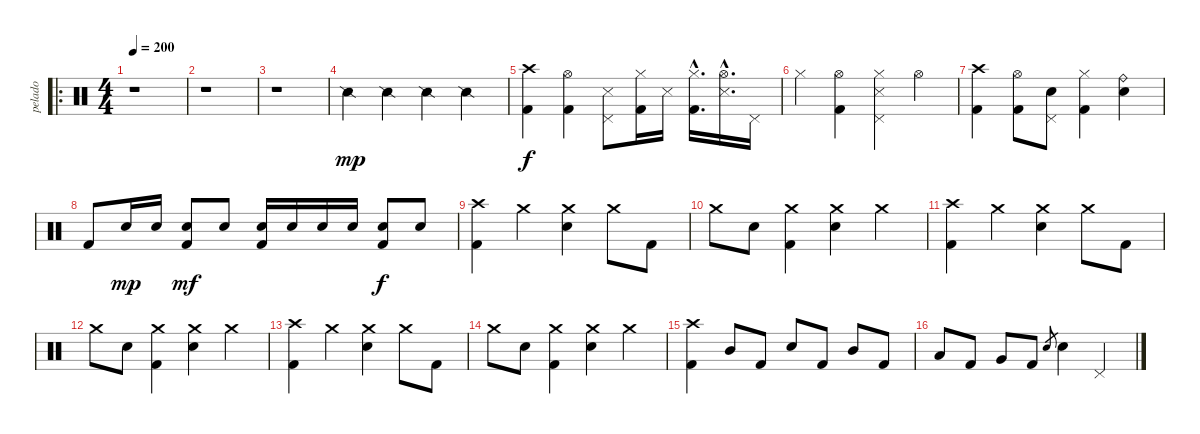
\track ("pelado" "pelado") {instrument percussion}
\staff {score}
\articulation defaults
\ro
\ts (4 4)
\tempo 200
\clef neutral
\ks c
r.1{dy mp} |
r.1 |
r.1 |
"Snare (side stick) 2".4 "Snare (side stick) 2".4 "Snare (side stick) 2".4 "Snare (side stick) 2".4 |
("Crash high (hit)" "Kick (hit) 2").4{dy f} ("Hi-Hat (open)" "Kick (hit) 2").4 ("Pedal Hi-Hat (hit)" "Snare (side stick) 3").8 ("Hi-Hat (closed)" "Kick (hit) 2").16 "Snare (side stick) 3".16 ("Hi-Hat (closed)"{hac} "Kick (hit) 2"{hac}).16{d} ("Hi-Hat (open)"{hac} "Snare (side stick) 3"{hac}).16{d} "Pedal Hi-Hat (hit)".16 |
"Hi-Hat (closed)".4 ("Hi-Hat (open)" "Kick (hit) 2").4 ("Hi-Hat (closed)" "Pedal Hi-Hat (hit)" "Snare (side stick) 3").4 "Hi-Hat (open)".4 |
("Crash high (hit)" "Kick (hit) 2").4 ("Hi-Hat (open)" "Kick (hit) 2").8 ("Pedal Hi-Hat (hit)" "Electric Snare (hit)").8 ("Hi-Hat (closed)" "Kick (hit) 2").4 ("Ride (bell)" "Electric Snare (hit)").4 |
"Kick (hit) 2".8 "Electric Snare (hit)".16{dy mp} "Electric Snare (hit)".16 ("Electric Snare (hit)" "Kick (hit) 2").8{dy mf} "Electric Snare (hit)".8 ("Electric Snare (hit)" "Kick (hit) 2").16 "Electric Snare (hit)".16 "Electric Snare (hit)".16 "Electric Snare (hit)".16 ("Electric Snare (hit)" "Kick (hit) 2").8{dy f} "Electric Snare (hit)".8 |
("Crash high (hit)" "Kick (hit) 2").4 "Crash medium (hit)".4 ("Crash medium (hit)" "Electric Snare (hit)").4 "Crash medium (hit)".8 "Kick (hit) 2".8 |
"Crash medium (hit)".8 "Electric Snare (hit)".8 ("Crash medium (hit)" "Kick (hit) 2").4 ("Crash medium (hit)" "Electric Snare (hit)").4 "Crash medium (hit)".4 |
("Crash high (hit)" "Kick (hit) 2").4 "Crash medium (hit)".4 ("Crash medium (hit)" "Electric Snare (hit)").4 "Crash medium (hit)".8 "Kick (hit) 2".8 |
"Crash medium (hit)".8 "Electric Snare (hit)".8 ("Crash medium (hit)" "Kick (hit) 2").4 ("Crash medium (hit)" "Electric Snare (hit)").4 "Crash medium (hit)".4 |
("Crash high (hit)" "Kick (hit) 2").4 "Crash medium (hit)".4 ("Crash medium (hit)" "Electric Snare (hit)").4 "Crash medium (hit)".8 "Kick (hit) 2".8 |
"Crash medium (hit)".8 "Electric Snare (hit)".8 ("Crash medium (hit)" "Kick (hit) 2").4 ("Crash medium (hit)" "Electric Snare (hit)").4 "Crash medium (hit)".4 |
("Crash high (hit)" "Kick (hit) 2").4 "Mid Tom (hit)".8 "Kick (hit) 2".8 "Electric Snare (hit)".8 "Kick (hit) 2".8 "Mid Tom (hit)".8 "Kick (hit) 2".8 |
"Low Tom (hit)".8 "Kick (hit) 2".8 "Very Low Tom (hit)".8 "Kick (hit) 2".8 "Electric Snare (hit)".8{gr} "Electric Snare (hit)".4 "Pedal Hi-Hat (hit)".4
